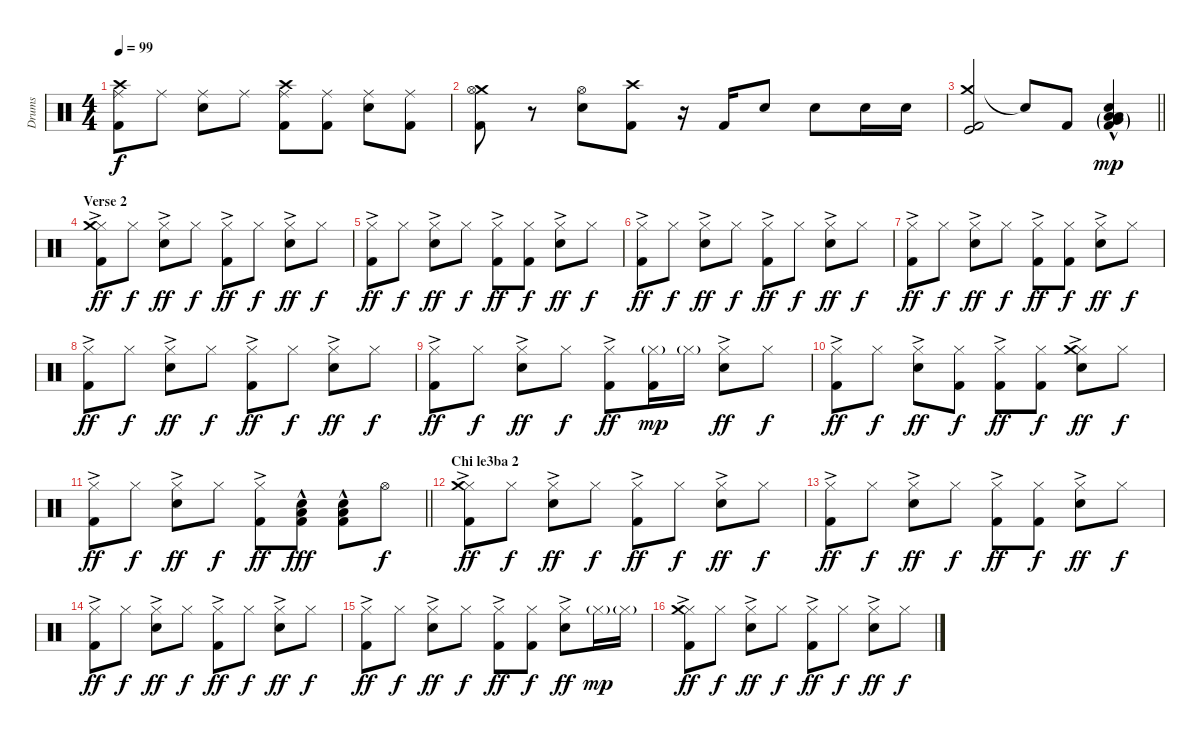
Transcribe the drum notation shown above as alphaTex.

\track ("Drums" "Drums") {instrument percussion}
\staff {score}
\articulation defaults
\ts (4 4)
\tempo 99
\clef neutral
\ks c
("Crash high (hit)" "Kick (hit) 2" "Ride (middle)").8{dy f} "Ride (middle)".8 ("Electric Snare (hit)" "Ride (middle)").8 "Ride (middle)".8 ("Crash high (hit)" "Kick (hit) 2" "Ride (middle)").8 ("Kick (hit) 2" "Ride (middle)").8 ("Electric Snare (hit)" "Ride (middle)").8 ("Kick (hit) 2" "Ride (middle)").8 |
("Crash medium (hit)" "Kick (hit) 2" "Hi-Hat (open)").8 r.8 ("Electric Snare (hit)" "Hi-Hat (open)").8 ("Crash high (hit)" "Kick (hit) 2").8 r.16 "Kick (hit) 2".16 "Electric Snare (hit)".8 "Electric Snare (hit)".8 "Electric Snare (hit)".16 "Electric Snare (hit)".16 |
\barLineRight lightlight
("Crash medium (hit)" "Kick (hit)" "Kick (hit) 2").2 "Snare (hit)"{t}.8 "Kick (hit) 2".8 ("Low Tom (hit)"{g} "Electric Snare (hit)"{hac} "Low Floor Tom (hit)"{g} "Very Low Tom (hit)"{g} "Kick (hit) 2"{g}).4{dy mp} |
\section ("" "Verse 2")
("Hi-Hat (closed)"{ac} "Kick (hit) 2" "Crash medium (hit)").8{dy ff} "Hi-Hat (closed)".8{dy f} ("Hi-Hat (closed)"{ac} "Electric Snare (hit)").8{dy ff} "Hi-Hat (closed)".8{dy f} ("Hi-Hat (closed)"{ac} "Kick (hit) 2").8{dy ff} "Hi-Hat (closed)".8{dy f} ("Hi-Hat (closed)"{ac} "Electric Snare (hit)").8{dy ff} "Hi-Hat (closed)".8{dy f} |
("Hi-Hat (closed)"{ac} "Kick (hit) 2").8{dy ff} "Hi-Hat (closed)".8{dy f} ("Hi-Hat (closed)"{ac} "Electric Snare (hit)").8{dy ff} "Hi-Hat (closed)".8{dy f} ("Hi-Hat (closed)"{ac} "Kick (hit) 2").8{dy ff} ("Hi-Hat (closed)" "Kick (hit) 2").8{dy f} ("Hi-Hat (closed)"{ac} "Electric Snare (hit)").8{dy ff} "Hi-Hat (closed)".8{dy f} |
("Hi-Hat (closed)"{ac} "Kick (hit) 2").8{dy ff} "Hi-Hat (closed)".8{dy f} ("Hi-Hat (closed)"{ac} "Electric Snare (hit)").8{dy ff} "Hi-Hat (closed)".8{dy f} ("Hi-Hat (closed)"{ac} "Kick (hit) 2").8{dy ff} "Hi-Hat (closed)".8{dy f} ("Hi-Hat (closed)"{ac} "Electric Snare (hit)").8{dy ff} "Hi-Hat (closed)".8{dy f} |
("Hi-Hat (closed)"{ac} "Kick (hit) 2").8{dy ff} "Hi-Hat (closed)".8{dy f} ("Hi-Hat (closed)"{ac} "Electric Snare (hit)").8{dy ff} "Hi-Hat (closed)".8{dy f} ("Hi-Hat (closed)"{ac} "Kick (hit) 2").8{dy ff} ("Hi-Hat (closed)" "Kick (hit) 2").8{dy f} ("Hi-Hat (closed)"{ac} "Electric Snare (hit)").8{dy ff} "Hi-Hat (closed)".8{dy f} |
("Hi-Hat (closed)"{ac} "Kick (hit) 2").8{dy ff} "Hi-Hat (closed)".8{dy f} ("Hi-Hat (closed)"{ac} "Electric Snare (hit)").8{dy ff} "Hi-Hat (closed)".8{dy f} ("Hi-Hat (closed)"{ac} "Kick (hit) 2").8{dy ff} "Hi-Hat (closed)".8{dy f} ("Hi-Hat (closed)"{ac} "Electric Snare (hit)").8{dy ff} "Hi-Hat (closed)".8{dy f} |
("Hi-Hat (closed)"{ac} "Kick (hit) 2").8{dy ff} "Hi-Hat (closed)".8{dy f} ("Hi-Hat (closed)"{ac} "Electric Snare (hit)").8{dy ff} "Hi-Hat (closed)".8{dy f} ("Hi-Hat (closed)"{ac} "Kick (hit) 2").8{dy ff} ("Hi-Hat (closed)"{g} "Kick (hit) 2").16{dy mp} "Hi-Hat (closed)"{g}.16 ("Hi-Hat (closed)"{ac} "Electric Snare (hit)").8{dy ff} "Hi-Hat (closed)".8{dy f} |
("Hi-Hat (closed)"{ac} "Kick (hit) 2").8{dy ff} "Hi-Hat (closed)".8{dy f} ("Hi-Hat (closed)"{ac} "Electric Snare (hit)").8{dy ff} ("Hi-Hat (closed)" "Kick (hit) 2").8{dy f} ("Hi-Hat (closed)"{ac} "Kick (hit) 2").8{dy ff} ("Hi-Hat (closed)" "Kick (hit) 2").8{dy f} ("Hi-Hat (closed)"{ac} "Electric Snare (hit)" "Crash medium (hit)").8{dy ff} "Hi-Hat (closed)".8{dy f} |
\barLineRight lightlight
("Hi-Hat (closed)"{ac} "Kick (hit) 2").8{dy ff} "Hi-Hat (closed)".8{dy f} ("Hi-Hat (closed)"{ac} "Electric Snare (hit)").8{dy ff} "Hi-Hat (closed)".8{dy f} ("Hi-Hat (closed)"{ac} "Kick (hit) 2").8{dy ff} ("Electric Snare (hit)"{hac} "Kick (hit) 2" "Low Floor Tom (hit)").8{dy fff} ("Electric Snare (hit)"{hac} "Kick (hit) 2" "Low Floor Tom (hit)").8 "Hi-Hat (open)".8{dy f} |
\section ("" "Chi le3ba 2")
("Hi-Hat (closed)"{ac} "Kick (hit) 2" "Crash medium (hit)").8{dy ff} "Hi-Hat (closed)".8{dy f} ("Hi-Hat (closed)"{ac} "Electric Snare (hit)").8{dy ff} "Hi-Hat (closed)".8{dy f} ("Hi-Hat (closed)"{ac} "Kick (hit) 2").8{dy ff} "Hi-Hat (closed)".8{dy f} ("Hi-Hat (closed)"{ac} "Electric Snare (hit)").8{dy ff} "Hi-Hat (closed)".8{dy f} |
("Hi-Hat (closed)"{ac} "Kick (hit) 2").8{dy ff} "Hi-Hat (closed)".8{dy f} ("Hi-Hat (closed)"{ac} "Electric Snare (hit)").8{dy ff} "Hi-Hat (closed)".8{dy f} ("Hi-Hat (closed)"{ac} "Kick (hit) 2").8{dy ff} ("Hi-Hat (closed)" "Kick (hit) 2").8{dy f} ("Hi-Hat (closed)"{ac} "Electric Snare (hit)").8{dy ff} "Hi-Hat (closed)".8{dy f} |
("Hi-Hat (closed)"{ac} "Kick (hit) 2").8{dy ff} "Hi-Hat (closed)".8{dy f} ("Hi-Hat (closed)"{ac} "Electric Snare (hit)").8{dy ff} "Hi-Hat (closed)".8{dy f} ("Hi-Hat (closed)"{ac} "Kick (hit) 2").8{dy ff} "Hi-Hat (closed)".8{dy f} ("Hi-Hat (closed)"{ac} "Electric Snare (hit)").8{dy ff} "Hi-Hat (closed)".8{dy f} |
("Hi-Hat (closed)"{ac} "Kick (hit) 2").8{dy ff} "Hi-Hat (closed)".8{dy f} ("Hi-Hat (closed)"{ac} "Electric Snare (hit)").8{dy ff} "Hi-Hat (closed)".8{dy f} ("Hi-Hat (closed)"{ac} "Kick (hit) 2").8{dy ff} ("Hi-Hat (closed)" "Kick (hit) 2").8{dy f} ("Hi-Hat (closed)"{ac} "Electric Snare (hit)").8{dy ff} "Hi-Hat (closed)"{g}.16{dy mp} "Hi-Hat (closed)"{g}.16 |
("Hi-Hat (closed)"{ac} "Kick (hit) 2" "Crash medium (hit)").8{dy ff} "Hi-Hat (closed)".8{dy f} ("Hi-Hat (closed)"{ac} "Electric Snare (hit)").8{dy ff} "Hi-Hat (closed)".8{dy f} ("Hi-Hat (closed)"{ac} "Kick (hit) 2").8{dy ff} "Hi-Hat (closed)".8{dy f} ("Hi-Hat (closed)"{ac} "Electric Snare (hit)").8{dy ff} "Hi-Hat (closed)".8{dy f}
